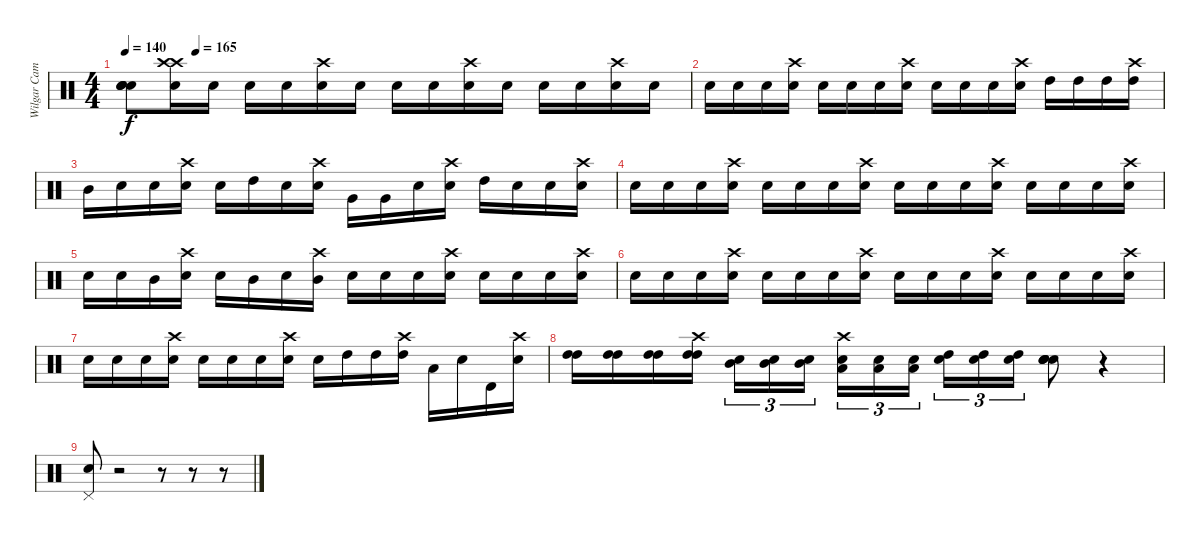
\track ("Wilgar Campbell" "Wilgar Cam") {instrument percussion}
\staff {score}
\articulation defaults
\ts (4 4)
\tempo 140
\tempo (165 0.125)
\clef neutral
\ks c
("Electric Snare (hit)" "Electric Snare (hit)" "Electric Snare (hit)" "Snare (hit) 2").8{dy f} ("Crash high (hit)" "Crash high (hit)" "Snare (hit) 2").16 "Snare (hit) 2".16 "Snare (hit) 2".16 "Snare (hit) 2".16 ("Crash high (hit)" "Snare (hit) 2").16 "Snare (hit) 2".16 "Snare (hit) 2".16 "Snare (hit) 2".16 ("Crash high (hit)" "Snare (hit) 2").16 "Snare (hit) 2".16 "Snare (hit) 2".16 "Snare (hit) 2".16 ("Crash high (hit)" "Snare (hit) 2").16 "Snare (hit) 2".16 |
"Snare (hit) 2".16 "Snare (hit) 2".16 "Snare (hit) 2".16 ("Crash high (hit)" "Electric Snare (hit)").16 "Electric Snare (hit)".16 "Electric Snare (hit)".16 "Electric Snare (hit)".16 ("Crash high (hit)" "Electric Snare (hit)").16 "Snare (hit) 2".16 "Snare (hit) 2".16 "Snare (hit) 2".16 ("Crash high (hit)" "Electric Snare (hit)").16 "High Tom (hit)".16 "High Tom (hit)".16 "High Tom (hit)".16 ("Crash high (hit)" "High Tom (hit)").16 |
"Mid Tom (hit)".16 "Electric Snare (hit)".16 "Snare (hit) 2".16 ("Crash high (hit)" "Electric Snare (hit)").16 "Snare (hit) 2".16 "High Tom (hit)".16 "Electric Snare (hit)".16 ("Crash high (hit)" "Snare (hit) 2").16 "Very Low Tom (hit)".16 "Very Low Tom (hit)".16 "Snare (hit) 2".16 ("Crash high (hit)" "Electric Snare (hit)").16 "High Tom (hit)".16 "Electric Snare (hit)".16 "Electric Snare (hit)".16 ("Crash high (hit)" "Electric Snare (hit)").16 |
"Snare (hit) 2".16 "Snare (hit) 2".16 "Snare (hit) 2".16 ("Crash high (hit)" "Snare (hit) 2").16 "Snare (hit) 2".16 "Snare (hit) 2".16 "Snare (hit) 2".16 ("Crash high (hit)" "Snare (hit) 2").16 "Snare (hit) 2".16 "Snare (hit) 2".16 "Snare (hit) 2".16 ("Crash high (hit)" "Snare (hit) 2").16 "Snare (hit) 2".16 "Snare (hit) 2".16 "Snare (hit) 2".16 ("Crash high (hit)" "Snare (hit) 2").16 |
"Electric Snare (hit)".16 "Snare (hit) 2".16 "Mid Tom (hit)".16 ("Crash high (hit)" "Electric Snare (hit)").16 "Snare (hit) 2".16 "Mid Tom (hit)".16 "Snare (hit) 2".16 ("Crash high (hit)" "Mid Tom (hit)").16 "Electric Snare (hit)".16 "Snare (hit) 2".16 "Electric Snare (hit)".16 ("Crash high (hit)" "Snare (hit) 2").16 "Electric Snare (hit)".16 "Snare (hit) 2".16 "Electric Snare (hit)".16 ("Crash high (hit)" "Snare (hit) 2").16 |
"Electric Snare (hit)".16 "Snare (hit) 2".16 "Electric Snare (hit)".16 ("Crash high (hit)" "Electric Snare (hit)").16 "Electric Snare (hit)".16 "Electric Snare (hit)".16 "Electric Snare (hit)".16 ("Crash high (hit)" "Snare (hit) 2").16 "Electric Snare (hit)".16 "Electric Snare (hit)".16 "Electric Snare (hit)".16 ("Crash high (hit)" "Snare (hit) 2").16 "Snare (hit) 2".16 "Electric Snare (hit)".16 "Electric Snare (hit)".16 ("Crash high (hit)" "Snare (hit) 2").16 |
"Electric Snare (hit)".16 "Snare (hit) 2".16 "Electric Snare (hit)".16 ("Crash high (hit)" "Snare (hit) 2").16 "Electric Snare (hit)".16 "Snare (hit) 2".16 "Electric Snare (hit)".16 ("Crash high (hit)" "Snare (hit) 2").16 "Electric Snare (hit)".16 "High Tom (hit)".16 "High Tom (hit)".16 ("Crash high (hit)" "High Tom (hit)").16 "Low Floor Tom (hit)".16 "Electric Snare (hit)".16 "Timbale high (hit)".16 ("Crash high (hit)" "Electric Snare (hit)").16 |
("High Tom (hit)" "High Tom (hit)").16 ("High Tom (hit)" "High Tom (hit)").16 ("High Tom (hit)" "High Tom (hit)").16 ("Crash high (hit)" "High Tom (hit)" "High Tom (hit)").16 ("Mid Tom (hit)" "Snare (hit) 2").16{tu (3 2)} ("Mid Tom (hit)" "Snare (hit) 2").16{tu (3 2)} ("Mid Tom (hit)" "Snare (hit) 2").16{tu (3 2)} ("Crash high (hit)" "Low Tom (hit)" "Snare (hit) 2").16{tu (3 2)} ("Low Tom (hit)" "Snare (hit) 2").16{tu (3 2)} ("Low Tom (hit)" "Snare (hit) 2").16{tu (3 2)} ("High Tom (hit)" "Snare (hit) 2").16{tu (3 2)} ("High Tom (hit)" "Snare (hit) 2").16{tu (3 2)} ("High Tom (hit)" "Snare (hit) 2").16{tu (3 2)} ("Electric Snare (hit)" "Electric Snare (hit)" "Snare (hit) 2" "Snare (hit) 2").8 r.4 |
("Electric Snare (hit)" "Pedal Hi-Hat (hit)").8 r.2 r.8 r.8 r.8
